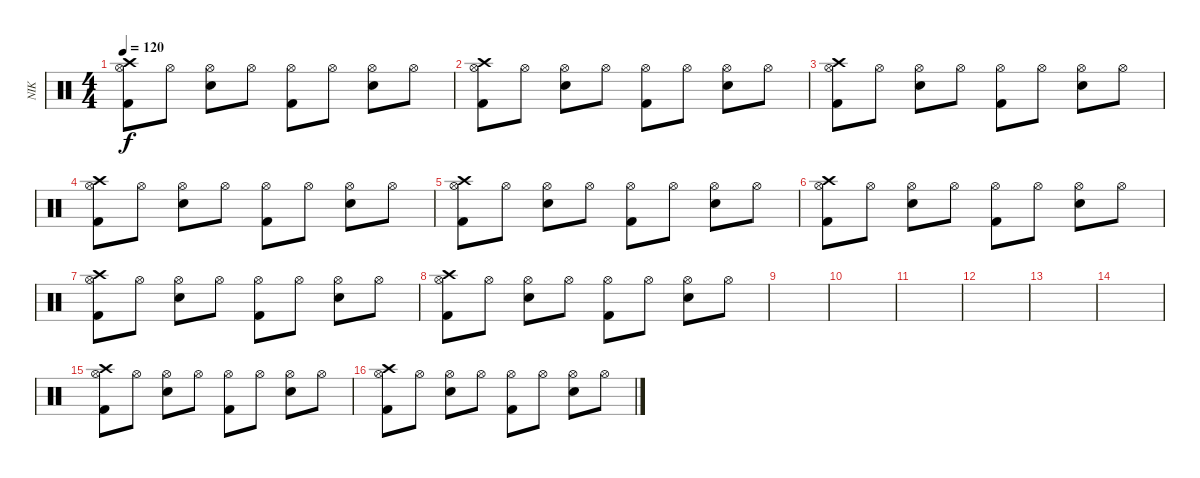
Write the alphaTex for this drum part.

\track ("NIK" "NIK") {instrument percussion}
\staff {score}
\articulation defaults
\ts (4 4)
\tempo 120
\clef neutral
\ks c
("Kick (hit) 2" "Crash high (hit)" "Hi-Hat (open)").8{dy f} "Hi-Hat (open)".8 ("Snare (hit) 2" "Hi-Hat (open)").8 "Hi-Hat (open)".8 ("Kick (hit) 2" "Hi-Hat (open)").8 "Hi-Hat (open)".8 ("Snare (hit) 2" "Hi-Hat (open)").8 "Hi-Hat (open)".8 |
("Kick (hit) 2" "Crash high (hit)" "Hi-Hat (open)").8 "Hi-Hat (open)".8 ("Snare (hit) 2" "Hi-Hat (open)").8 "Hi-Hat (open)".8 ("Kick (hit) 2" "Hi-Hat (open)").8 "Hi-Hat (open)".8 ("Snare (hit) 2" "Hi-Hat (open)").8 "Hi-Hat (open)".8 |
("Kick (hit) 2" "Crash high (hit)" "Hi-Hat (open)").8 "Hi-Hat (open)".8 ("Snare (hit) 2" "Hi-Hat (open)").8 "Hi-Hat (open)".8 ("Kick (hit) 2" "Hi-Hat (open)").8 "Hi-Hat (open)".8 ("Snare (hit) 2" "Hi-Hat (open)").8 "Hi-Hat (open)".8 |
("Kick (hit) 2" "Crash high (hit)" "Hi-Hat (open)").8 "Hi-Hat (open)".8 ("Snare (hit) 2" "Hi-Hat (open)").8 "Hi-Hat (open)".8 ("Kick (hit) 2" "Hi-Hat (open)").8 "Hi-Hat (open)".8 ("Snare (hit) 2" "Hi-Hat (open)").8 "Hi-Hat (open)".8 |
("Kick (hit) 2" "Crash high (hit)" "Hi-Hat (open)").8 "Hi-Hat (open)".8 ("Snare (hit) 2" "Hi-Hat (open)").8 "Hi-Hat (open)".8 ("Kick (hit) 2" "Hi-Hat (open)").8 "Hi-Hat (open)".8 ("Snare (hit) 2" "Hi-Hat (open)").8 "Hi-Hat (open)".8 |
("Kick (hit) 2" "Crash high (hit)" "Hi-Hat (open)").8 "Hi-Hat (open)".8 ("Snare (hit) 2" "Hi-Hat (open)").8 "Hi-Hat (open)".8 ("Kick (hit) 2" "Hi-Hat (open)").8 "Hi-Hat (open)".8 ("Snare (hit) 2" "Hi-Hat (open)").8 "Hi-Hat (open)".8 |
("Kick (hit) 2" "Crash high (hit)" "Hi-Hat (open)").8 "Hi-Hat (open)".8 ("Snare (hit) 2" "Hi-Hat (open)").8 "Hi-Hat (open)".8 ("Kick (hit) 2" "Hi-Hat (open)").8 "Hi-Hat (open)".8 ("Snare (hit) 2" "Hi-Hat (open)").8 "Hi-Hat (open)".8 |
("Kick (hit) 2" "Crash high (hit)" "Hi-Hat (open)").8 "Hi-Hat (open)".8 ("Snare (hit) 2" "Hi-Hat (open)").8 "Hi-Hat (open)".8 ("Kick (hit) 2" "Hi-Hat (open)").8 "Hi-Hat (open)".8 ("Snare (hit) 2" "Hi-Hat (open)").8 "Hi-Hat (open)".8 |
|
|
|
|
|
|
("Kick (hit) 2" "Crash high (hit)" "Hi-Hat (open)").8 "Hi-Hat (open)".8 ("Snare (hit) 2" "Hi-Hat (open)").8 "Hi-Hat (open)".8 ("Kick (hit) 2" "Hi-Hat (open)").8 "Hi-Hat (open)".8 ("Snare (hit) 2" "Hi-Hat (open)").8 "Hi-Hat (open)".8 |
("Kick (hit) 2" "Crash high (hit)" "Hi-Hat (open)").8 "Hi-Hat (open)".8 ("Snare (hit) 2" "Hi-Hat (open)").8 "Hi-Hat (open)".8 ("Kick (hit) 2" "Hi-Hat (open)").8 "Hi-Hat (open)".8 ("Snare (hit) 2" "Hi-Hat (open)").8 "Hi-Hat (open)".8
